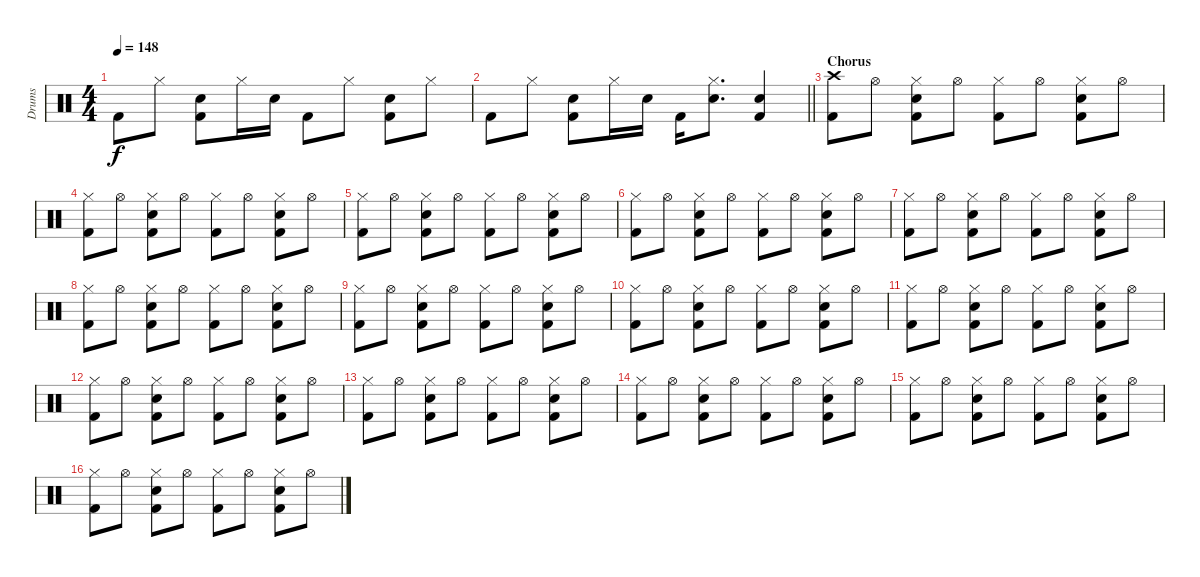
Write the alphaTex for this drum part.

\track ("Drums" "Drums") {instrument percussion}
\staff {score}
\articulation defaults
\ts (4 4)
\tempo 148
\clef neutral
\ks c "Kick (hit) 2".8{dy f} "Hi-Hat (closed)".8
("Electric Snare (hit)" "Kick (hit) 2").8 "Hi-Hat (closed)".16 "Electric Snare (hit)".16 "Kick (hit) 2".8 "Hi-Hat (closed)".8 ("Electric Snare (hit)" "Kick (hit) 2").8 "Hi-Hat (closed)".8 |
\barLineRight lightlight "Kick (hit) 2".8 "Hi-Hat (closed)".8
("Electric Snare (hit)" "Kick (hit) 2").8 "Hi-Hat (closed)".16 "Electric Snare (hit)".16 "Kick (hit) 2".16 ("Hi-Hat (closed)" "Electric Snare (hit)").8{d} ("Electric Snare (hit)" "Kick (hit) 2").4 |
\section ("" "Chorus")
("Crash high (hit)" "Kick (hit) 2").8 "Hi-Hat (open)".8 ("Hi-Hat (closed)" "Electric Snare (hit)" "Kick (hit) 2").8 "Hi-Hat (open)".8 ("Hi-Hat (closed)" "Kick (hit) 2").8 "Hi-Hat (open)".8 ("Hi-Hat (closed)" "Electric Snare (hit)" "Kick (hit) 2").8 "Hi-Hat (open)".8 |
("Hi-Hat (closed)" "Kick (hit) 2").8 "Hi-Hat (open)".8 ("Hi-Hat (closed)" "Electric Snare (hit)" "Kick (hit) 2").8 "Hi-Hat (open)".8 ("Hi-Hat (closed)" "Kick (hit) 2").8 "Hi-Hat (open)".8 ("Hi-Hat (closed)" "Electric Snare (hit)" "Kick (hit) 2").8 "Hi-Hat (open)".8 |
("Hi-Hat (closed)" "Kick (hit) 2").8 "Hi-Hat (open)".8 ("Hi-Hat (closed)" "Electric Snare (hit)" "Kick (hit) 2").8 "Hi-Hat (open)".8 ("Hi-Hat (closed)" "Kick (hit) 2").8 "Hi-Hat (open)".8 ("Hi-Hat (closed)" "Electric Snare (hit)" "Kick (hit) 2").8 "Hi-Hat (open)".8 |
("Hi-Hat (closed)" "Kick (hit) 2").8 "Hi-Hat (open)".8 ("Hi-Hat (closed)" "Electric Snare (hit)" "Kick (hit) 2").8 "Hi-Hat (open)".8 ("Hi-Hat (closed)" "Kick (hit) 2").8 "Hi-Hat (open)".8 ("Hi-Hat (closed)" "Electric Snare (hit)" "Kick (hit) 2").8 "Hi-Hat (open)".8 |
("Hi-Hat (closed)" "Kick (hit) 2").8 "Hi-Hat (open)".8 ("Hi-Hat (closed)" "Electric Snare (hit)" "Kick (hit) 2").8 "Hi-Hat (open)".8 ("Hi-Hat (closed)" "Kick (hit) 2").8 "Hi-Hat (open)".8 ("Hi-Hat (closed)" "Electric Snare (hit)" "Kick (hit) 2").8 "Hi-Hat (open)".8 |
("Hi-Hat (closed)" "Kick (hit) 2").8 "Hi-Hat (open)".8 ("Hi-Hat (closed)" "Electric Snare (hit)" "Kick (hit) 2").8 "Hi-Hat (open)".8 ("Hi-Hat (closed)" "Kick (hit) 2").8 "Hi-Hat (open)".8 ("Hi-Hat (closed)" "Electric Snare (hit)" "Kick (hit) 2").8 "Hi-Hat (open)".8 |
("Hi-Hat (closed)" "Kick (hit) 2").8 "Hi-Hat (open)".8 ("Hi-Hat (closed)" "Electric Snare (hit)" "Kick (hit) 2").8 "Hi-Hat (open)".8 ("Hi-Hat (closed)" "Kick (hit) 2").8 "Hi-Hat (open)".8 ("Hi-Hat (closed)" "Electric Snare (hit)" "Kick (hit) 2").8 "Hi-Hat (open)".8 |
("Hi-Hat (closed)" "Kick (hit) 2").8 "Hi-Hat (open)".8 ("Hi-Hat (closed)" "Electric Snare (hit)" "Kick (hit) 2").8 "Hi-Hat (open)".8 ("Hi-Hat (closed)" "Kick (hit) 2").8 "Hi-Hat (open)".8 ("Hi-Hat (closed)" "Electric Snare (hit)" "Kick (hit) 2").8 "Hi-Hat (open)".8 |
("Hi-Hat (closed)" "Kick (hit) 2").8 "Hi-Hat (open)".8 ("Hi-Hat (closed)" "Electric Snare (hit)" "Kick (hit) 2").8 "Hi-Hat (open)".8 ("Hi-Hat (closed)" "Kick (hit) 2").8 "Hi-Hat (open)".8 ("Hi-Hat (closed)" "Electric Snare (hit)" "Kick (hit) 2").8 "Hi-Hat (open)".8 |
("Hi-Hat (closed)" "Kick (hit) 2").8 "Hi-Hat (open)".8 ("Hi-Hat (closed)" "Electric Snare (hit)" "Kick (hit) 2").8 "Hi-Hat (open)".8 ("Hi-Hat (closed)" "Kick (hit) 2").8 "Hi-Hat (open)".8 ("Hi-Hat (closed)" "Electric Snare (hit)" "Kick (hit) 2").8 "Hi-Hat (open)".8 |
("Hi-Hat (closed)" "Kick (hit) 2").8 "Hi-Hat (open)".8 ("Hi-Hat (closed)" "Electric Snare (hit)" "Kick (hit) 2").8 "Hi-Hat (open)".8 ("Hi-Hat (closed)" "Kick (hit) 2").8 "Hi-Hat (open)".8 ("Hi-Hat (closed)" "Electric Snare (hit)" "Kick (hit) 2").8 "Hi-Hat (open)".8 |
("Hi-Hat (closed)" "Kick (hit) 2").8 "Hi-Hat (open)".8 ("Hi-Hat (closed)" "Electric Snare (hit)" "Kick (hit) 2").8 "Hi-Hat (open)".8 ("Hi-Hat (closed)" "Kick (hit) 2").8 "Hi-Hat (open)".8 ("Hi-Hat (closed)" "Electric Snare (hit)" "Kick (hit) 2").8 "Hi-Hat (open)".8 |
("Hi-Hat (closed)" "Kick (hit) 2").8 "Hi-Hat (open)".8 ("Hi-Hat (closed)" "Electric Snare (hit)" "Kick (hit) 2").8 "Hi-Hat (open)".8 ("Hi-Hat (closed)" "Kick (hit) 2").8 "Hi-Hat (open)".8 ("Hi-Hat (closed)" "Electric Snare (hit)" "Kick (hit) 2").8 "Hi-Hat (open)".8 |
("Hi-Hat (closed)" "Kick (hit) 2").8 "Hi-Hat (open)".8 ("Hi-Hat (closed)" "Electric Snare (hit)" "Kick (hit) 2").8 "Hi-Hat (open)".8 ("Hi-Hat (closed)" "Kick (hit) 2").8 "Hi-Hat (open)".8 ("Hi-Hat (closed)" "Electric Snare (hit)" "Kick (hit) 2").8 "Hi-Hat (open)".8
